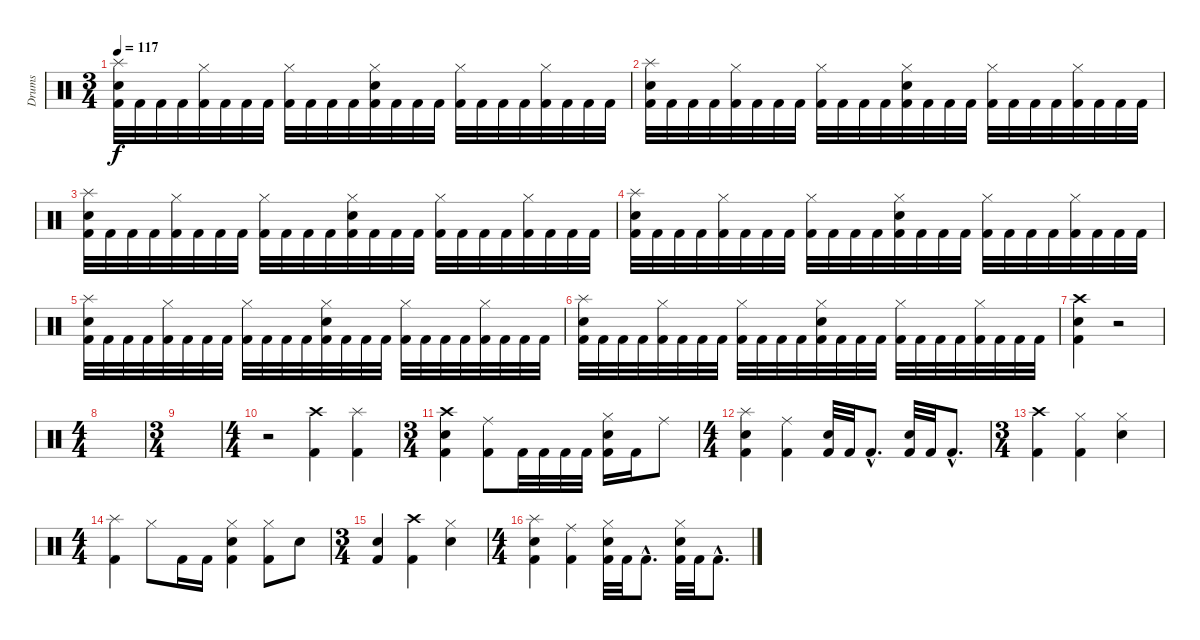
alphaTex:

\track ("Drums" "Drums") {instrument percussion}
\staff {score}
\articulation defaults
\ts (3 4)
\tempo 117
\clef neutral
\ks c
("Splash (hit)" "Electric Snare (hit)" "Kick (hit) 2").32{dy f} "Kick (hit) 2".32 "Kick (hit) 2".32 "Kick (hit) 2".32 ("Hi-Hat (closed)" "Kick (hit) 2").32 "Kick (hit) 2".32 "Kick (hit) 2".32 "Kick (hit) 2".32 ("Hi-Hat (closed)" "Kick (hit) 2").32 "Kick (hit) 2".32 "Kick (hit) 2".32 "Kick (hit) 2".32 ("Hi-Hat (closed)" "Electric Snare (hit)" "Kick (hit) 2").32 "Kick (hit) 2".32 "Kick (hit) 2".32 "Kick (hit) 2".32 ("Hi-Hat (closed)" "Kick (hit) 2").32 "Kick (hit) 2".32 "Kick (hit) 2".32 "Kick (hit) 2".32 ("Hi-Hat (closed)" "Kick (hit) 2").32 "Kick (hit) 2".32 "Kick (hit) 2".32 "Kick (hit) 2".32 |
("Splash (hit)" "Electric Snare (hit)" "Kick (hit) 2").32 "Kick (hit) 2".32 "Kick (hit) 2".32 "Kick (hit) 2".32 ("Hi-Hat (closed)" "Kick (hit) 2").32 "Kick (hit) 2".32 "Kick (hit) 2".32 "Kick (hit) 2".32 ("Hi-Hat (closed)" "Kick (hit) 2").32 "Kick (hit) 2".32 "Kick (hit) 2".32 "Kick (hit) 2".32 ("Hi-Hat (closed)" "Electric Snare (hit)" "Kick (hit) 2").32 "Kick (hit) 2".32 "Kick (hit) 2".32 "Kick (hit) 2".32 ("Hi-Hat (closed)" "Kick (hit) 2").32 "Kick (hit) 2".32 "Kick (hit) 2".32 "Kick (hit) 2".32 ("Hi-Hat (closed)" "Kick (hit) 2").32 "Kick (hit) 2".32 "Kick (hit) 2".32 "Kick (hit) 2".32 |
("Splash (hit)" "Electric Snare (hit)" "Kick (hit) 2").32 "Kick (hit) 2".32 "Kick (hit) 2".32 "Kick (hit) 2".32 ("Hi-Hat (closed)" "Kick (hit) 2").32 "Kick (hit) 2".32 "Kick (hit) 2".32 "Kick (hit) 2".32 ("Hi-Hat (closed)" "Kick (hit) 2").32 "Kick (hit) 2".32 "Kick (hit) 2".32 "Kick (hit) 2".32 ("Hi-Hat (closed)" "Electric Snare (hit)" "Kick (hit) 2").32 "Kick (hit) 2".32 "Kick (hit) 2".32 "Kick (hit) 2".32 ("Hi-Hat (closed)" "Kick (hit) 2").32 "Kick (hit) 2".32 "Kick (hit) 2".32 "Kick (hit) 2".32 ("Hi-Hat (closed)" "Kick (hit) 2").32 "Kick (hit) 2".32 "Kick (hit) 2".32 "Kick (hit) 2".32 |
("Splash (hit)" "Electric Snare (hit)" "Kick (hit) 2").32 "Kick (hit) 2".32 "Kick (hit) 2".32 "Kick (hit) 2".32 ("Hi-Hat (closed)" "Kick (hit) 2").32 "Kick (hit) 2".32 "Kick (hit) 2".32 "Kick (hit) 2".32 ("Hi-Hat (closed)" "Kick (hit) 2").32 "Kick (hit) 2".32 "Kick (hit) 2".32 "Kick (hit) 2".32 ("Hi-Hat (closed)" "Electric Snare (hit)" "Kick (hit) 2").32 "Kick (hit) 2".32 "Kick (hit) 2".32 "Kick (hit) 2".32 ("Hi-Hat (closed)" "Kick (hit) 2").32 "Kick (hit) 2".32 "Kick (hit) 2".32 "Kick (hit) 2".32 ("Hi-Hat (closed)" "Kick (hit) 2").32 "Kick (hit) 2".32 "Kick (hit) 2".32 "Kick (hit) 2".32 |
("Splash (hit)" "Electric Snare (hit)" "Kick (hit) 2").32 "Kick (hit) 2".32 "Kick (hit) 2".32 "Kick (hit) 2".32 ("Hi-Hat (closed)" "Kick (hit) 2").32 "Kick (hit) 2".32 "Kick (hit) 2".32 "Kick (hit) 2".32 ("Hi-Hat (closed)" "Kick (hit) 2").32 "Kick (hit) 2".32 "Kick (hit) 2".32 "Kick (hit) 2".32 ("Hi-Hat (closed)" "Electric Snare (hit)" "Kick (hit) 2").32 "Kick (hit) 2".32 "Kick (hit) 2".32 "Kick (hit) 2".32 ("Hi-Hat (closed)" "Kick (hit) 2").32 "Kick (hit) 2".32 "Kick (hit) 2".32 "Kick (hit) 2".32 ("Hi-Hat (closed)" "Kick (hit) 2").32 "Kick (hit) 2".32 "Kick (hit) 2".32 "Kick (hit) 2".32 |
("Splash (hit)" "Electric Snare (hit)" "Kick (hit) 2").32 "Kick (hit) 2".32 "Kick (hit) 2".32 "Kick (hit) 2".32 ("Hi-Hat (closed)" "Kick (hit) 2").32 "Kick (hit) 2".32 "Kick (hit) 2".32 "Kick (hit) 2".32 ("Hi-Hat (closed)" "Kick (hit) 2").32 "Kick (hit) 2".32 "Kick (hit) 2".32 "Kick (hit) 2".32 ("Hi-Hat (closed)" "Electric Snare (hit)" "Kick (hit) 2").32 "Kick (hit) 2".32 "Kick (hit) 2".32 "Kick (hit) 2".32 ("Hi-Hat (closed)" "Kick (hit) 2").32 "Kick (hit) 2".32 "Kick (hit) 2".32 "Kick (hit) 2".32 ("Hi-Hat (closed)" "Kick (hit) 2").32 "Kick (hit) 2".32 "Kick (hit) 2".32 "Kick (hit) 2".32 |
("Crash high (hit)" "Electric Snare (hit)" "Kick (hit) 2").4 r.2 |
\ts (4 4)
|
\ts (3 4)
|
\ts (4 4)
r.2 ("Crash high (hit)" "Kick (hit) 2").4 ("Splash (hit)" "Kick (hit) 2").4 |
\ts (3 4)
("Crash high (hit)" "Electric Snare (hit)" "Kick (hit) 2").4 ("Ride (middle)" "Kick (hit) 2").8 "Kick (hit) 2".32 "Kick (hit) 2".32 "Kick (hit) 2".32 "Kick (hit) 2".32 ("Hi-Hat (closed)" "Electric Snare (hit)" "Kick (hit) 2").16 "Kick (hit) 2".16 "Ride (middle)".8 |
\ts (4 4)
("Splash (hit)" "Electric Snare (hit)" "Kick (hit) 2").4 ("Ride (middle)" "Kick (hit) 2").4 ("Electric Snare (hit)" "Kick (hit) 2").32 "Kick (hit) 2".32 "Kick (hit) 2"{hac}.8{d} ("Electric Snare (hit)" "Kick (hit) 2").32 "Kick (hit) 2".32 "Kick (hit) 2"{hac}.8{d} |
\ts (3 4)
("Crash high (hit)" "Kick (hit) 2").4 ("Hi-Hat (closed)" "Kick (hit) 2").4 ("Hi-Hat (closed)" "Electric Snare (hit)").4 |
\ts (4 4)
("Splash (hit)" "Kick (hit) 2").4 "Hi-Hat (closed)".8 "Kick (hit) 2".16 "Kick (hit) 2".16 ("Hi-Hat (closed)" "Electric Snare (hit)" "Kick (hit) 2").4 ("Hi-Hat (closed)" "Kick (hit) 2").8 "Electric Snare (hit)".8 |
\ts (3 4)
("Electric Snare (hit)" "Kick (hit) 2").4 ("Crash high (hit)" "Kick (hit) 2").4 ("Hi-Hat (closed)" "Electric Snare (hit)").4 |
\ts (4 4)
("Splash (hit)" "Electric Snare (hit)" "Kick (hit) 2").4 ("Ride (middle)" "Kick (hit) 2").4 ("Hi-Hat (closed)" "Electric Snare (hit)" "Kick (hit) 2").32 "Kick (hit) 2".32 "Kick (hit) 2"{hac}.8{d} ("Hi-Hat (closed)" "Electric Snare (hit)" "Kick (hit) 2").32 "Kick (hit) 2".32 "Kick (hit) 2"{hac}.8{d}
